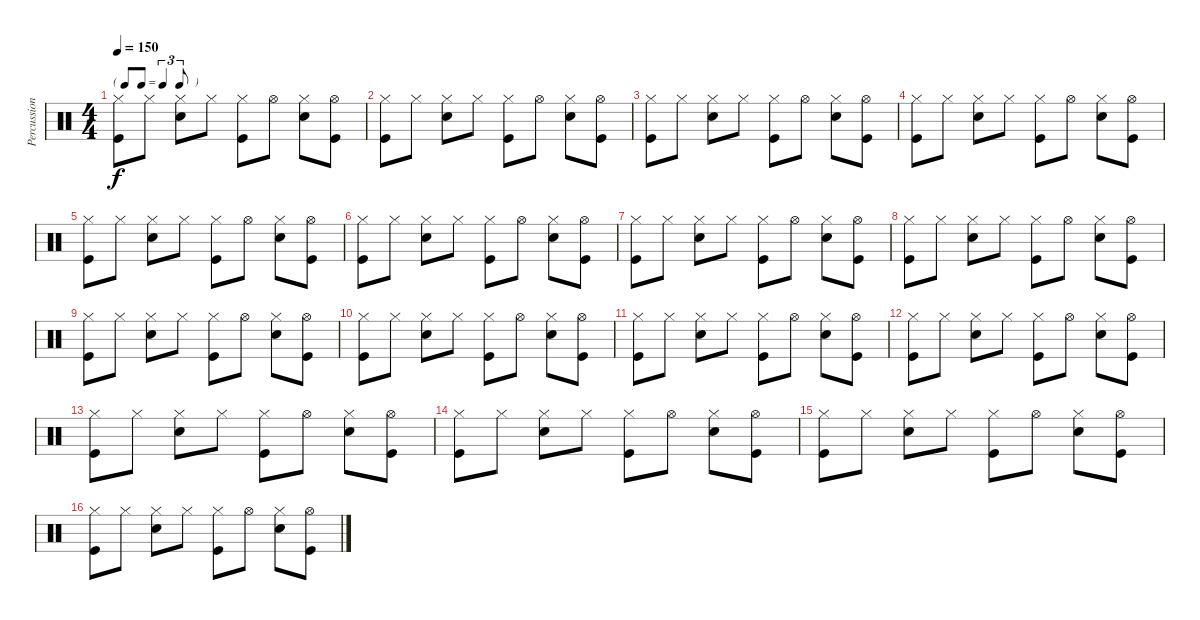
\track ("Percussions" "Percussion") {instrument percussion}
\staff {score}
\articulation defaults
\ts (4 4)
\tf triplet8th
\tempo 150
\clef neutral
\ks c
("Kick (hit)" "Hi-Hat (closed)").8{dy f} "Hi-Hat (closed)".8 ("Snare (hit) 2" "Hi-Hat (closed)").8 "Hi-Hat (closed)".8 ("Kick (hit)" "Hi-Hat (closed)").8 "Hi-Hat (open)".8 ("Snare (hit) 2" "Hi-Hat (closed)").8 ("Kick (hit)" "Hi-Hat (open)").8 |
("Kick (hit)" "Hi-Hat (closed)").8 "Hi-Hat (closed)".8 ("Snare (hit) 2" "Hi-Hat (closed)").8 "Hi-Hat (closed)".8 ("Kick (hit)" "Hi-Hat (closed)").8 "Hi-Hat (open)".8 ("Snare (hit) 2" "Hi-Hat (closed)").8 ("Kick (hit)" "Hi-Hat (open)").8 |
("Kick (hit)" "Hi-Hat (closed)").8 "Hi-Hat (closed)".8 ("Snare (hit) 2" "Hi-Hat (closed)").8 "Hi-Hat (closed)".8 ("Kick (hit)" "Hi-Hat (closed)").8 "Hi-Hat (open)".8 ("Snare (hit) 2" "Hi-Hat (closed)").8 ("Kick (hit)" "Hi-Hat (open)").8 |
("Kick (hit)" "Hi-Hat (closed)").8 "Hi-Hat (closed)".8 ("Snare (hit) 2" "Hi-Hat (closed)").8 "Hi-Hat (closed)".8 ("Kick (hit)" "Hi-Hat (closed)").8 "Hi-Hat (open)".8 ("Snare (hit) 2" "Hi-Hat (closed)").8 ("Kick (hit)" "Hi-Hat (open)").8 |
("Kick (hit)" "Hi-Hat (closed)").8 "Hi-Hat (closed)".8 ("Snare (hit) 2" "Hi-Hat (closed)").8 "Hi-Hat (closed)".8 ("Kick (hit)" "Hi-Hat (closed)").8 "Hi-Hat (open)".8 ("Snare (hit) 2" "Hi-Hat (closed)").8 ("Kick (hit)" "Hi-Hat (open)").8 |
("Kick (hit)" "Hi-Hat (closed)").8 "Hi-Hat (closed)".8 ("Snare (hit) 2" "Hi-Hat (closed)").8 "Hi-Hat (closed)".8 ("Kick (hit)" "Hi-Hat (closed)").8 "Hi-Hat (open)".8 ("Snare (hit) 2" "Hi-Hat (closed)").8 ("Kick (hit)" "Hi-Hat (open)").8 |
("Kick (hit)" "Hi-Hat (closed)").8 "Hi-Hat (closed)".8 ("Snare (hit) 2" "Hi-Hat (closed)").8 "Hi-Hat (closed)".8 ("Kick (hit)" "Hi-Hat (closed)").8 "Hi-Hat (open)".8 ("Snare (hit) 2" "Hi-Hat (closed)").8 ("Kick (hit)" "Hi-Hat (open)").8 |
("Kick (hit)" "Hi-Hat (closed)").8 "Hi-Hat (closed)".8 ("Snare (hit) 2" "Hi-Hat (closed)").8 "Hi-Hat (closed)".8 ("Kick (hit)" "Hi-Hat (closed)").8 "Hi-Hat (open)".8 ("Snare (hit) 2" "Hi-Hat (closed)").8 ("Kick (hit)" "Hi-Hat (open)").8 |
("Kick (hit)" "Hi-Hat (closed)").8 "Hi-Hat (closed)".8 ("Snare (hit) 2" "Hi-Hat (closed)").8 "Hi-Hat (closed)".8 ("Kick (hit)" "Hi-Hat (closed)").8 "Hi-Hat (open)".8 ("Snare (hit) 2" "Hi-Hat (closed)").8 ("Kick (hit)" "Hi-Hat (open)").8 |
("Kick (hit)" "Hi-Hat (closed)").8 "Hi-Hat (closed)".8 ("Snare (hit) 2" "Hi-Hat (closed)").8 "Hi-Hat (closed)".8 ("Kick (hit)" "Hi-Hat (closed)").8 "Hi-Hat (open)".8 ("Snare (hit) 2" "Hi-Hat (closed)").8 ("Kick (hit)" "Hi-Hat (open)").8 |
("Kick (hit)" "Hi-Hat (closed)").8 "Hi-Hat (closed)".8 ("Snare (hit) 2" "Hi-Hat (closed)").8 "Hi-Hat (closed)".8 ("Kick (hit)" "Hi-Hat (closed)").8 "Hi-Hat (open)".8 ("Snare (hit) 2" "Hi-Hat (closed)").8 ("Kick (hit)" "Hi-Hat (open)").8 |
("Kick (hit)" "Hi-Hat (closed)").8 "Hi-Hat (closed)".8 ("Snare (hit) 2" "Hi-Hat (closed)").8 "Hi-Hat (closed)".8 ("Kick (hit)" "Hi-Hat (closed)").8 "Hi-Hat (open)".8 ("Snare (hit) 2" "Hi-Hat (closed)").8 ("Kick (hit)" "Hi-Hat (open)").8 |
("Kick (hit)" "Hi-Hat (closed)").8 "Hi-Hat (closed)".8 ("Snare (hit) 2" "Hi-Hat (closed)").8 "Hi-Hat (closed)".8 ("Kick (hit)" "Hi-Hat (closed)").8 "Hi-Hat (open)".8 ("Snare (hit) 2" "Hi-Hat (closed)").8 ("Kick (hit)" "Hi-Hat (open)").8 |
("Kick (hit)" "Hi-Hat (closed)").8 "Hi-Hat (closed)".8 ("Snare (hit) 2" "Hi-Hat (closed)").8 "Hi-Hat (closed)".8 ("Kick (hit)" "Hi-Hat (closed)").8 "Hi-Hat (open)".8 ("Snare (hit) 2" "Hi-Hat (closed)").8 ("Kick (hit)" "Hi-Hat (open)").8 |
("Kick (hit)" "Hi-Hat (closed)").8 "Hi-Hat (closed)".8 ("Snare (hit) 2" "Hi-Hat (closed)").8 "Hi-Hat (closed)".8 ("Kick (hit)" "Hi-Hat (closed)").8 "Hi-Hat (open)".8 ("Snare (hit) 2" "Hi-Hat (closed)").8 ("Kick (hit)" "Hi-Hat (open)").8 |
("Kick (hit)" "Hi-Hat (closed)").8 "Hi-Hat (closed)".8 ("Snare (hit) 2" "Hi-Hat (closed)").8 "Hi-Hat (closed)".8 ("Kick (hit)" "Hi-Hat (closed)").8 "Hi-Hat (open)".8 ("Snare (hit) 2" "Hi-Hat (closed)").8 ("Kick (hit)" "Hi-Hat (open)").8
